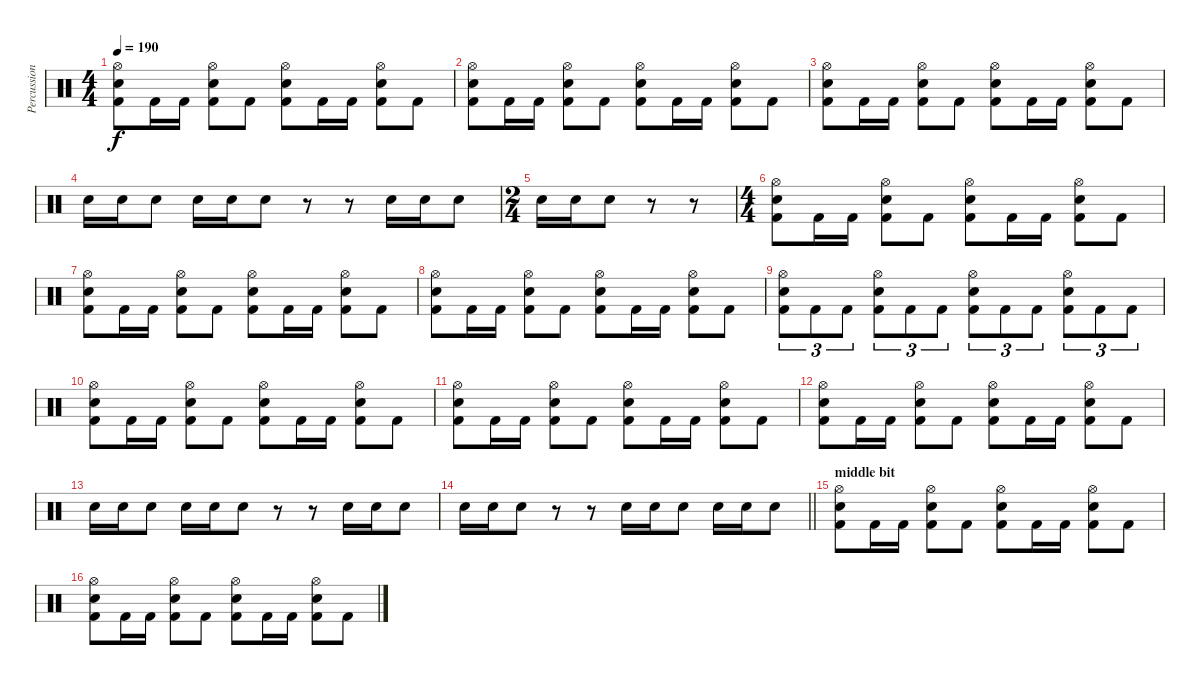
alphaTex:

\track ("Percussion" "Percussion") {instrument percussion}
\staff {score}
\articulation defaults
\ts (4 4)
\tempo 190
\clef neutral
\ks c
("Hi-Hat (open)" "Electric Snare (hit)" "Kick (hit) 2").8{dy f} "Kick (hit) 2".16 "Kick (hit) 2".16 ("Hi-Hat (open)" "Electric Snare (hit)" "Kick (hit) 2").8 "Kick (hit) 2".8 ("Hi-Hat (open)" "Electric Snare (hit)" "Kick (hit) 2").8 "Kick (hit) 2".16 "Kick (hit) 2".16 ("Hi-Hat (open)" "Electric Snare (hit)" "Kick (hit) 2").8 "Kick (hit) 2".8 |
("Hi-Hat (open)" "Electric Snare (hit)" "Kick (hit) 2").8 "Kick (hit) 2".16 "Kick (hit) 2".16 ("Hi-Hat (open)" "Electric Snare (hit)" "Kick (hit) 2").8 "Kick (hit) 2".8 ("Hi-Hat (open)" "Electric Snare (hit)" "Kick (hit) 2").8 "Kick (hit) 2".16 "Kick (hit) 2".16 ("Hi-Hat (open)" "Electric Snare (hit)" "Kick (hit) 2").8 "Kick (hit) 2".8 |
("Hi-Hat (open)" "Electric Snare (hit)" "Kick (hit) 2").8 "Kick (hit) 2".16 "Kick (hit) 2".16 ("Hi-Hat (open)" "Electric Snare (hit)" "Kick (hit) 2").8 "Kick (hit) 2".8 ("Hi-Hat (open)" "Electric Snare (hit)" "Kick (hit) 2").8 "Kick (hit) 2".16 "Kick (hit) 2".16 ("Hi-Hat (open)" "Electric Snare (hit)" "Kick (hit) 2").8 "Kick (hit) 2".8 |
"Electric Snare (hit)".16 "Electric Snare (hit)".16 "Electric Snare (hit)".8 "Electric Snare (hit)".16 "Electric Snare (hit)".16 "Electric Snare (hit)".8 r.8 r.8 "Electric Snare (hit)".16 "Electric Snare (hit)".16 "Electric Snare (hit)".8 |
\ts (2 4)
"Electric Snare (hit)".16 "Electric Snare (hit)".16 "Electric Snare (hit)".8 r.8 r.8 |
\ts (4 4)
("Hi-Hat (open)" "Electric Snare (hit)" "Kick (hit) 2").8 "Kick (hit) 2".16 "Kick (hit) 2".16 ("Hi-Hat (open)" "Electric Snare (hit)" "Kick (hit) 2").8 "Kick (hit) 2".8 ("Hi-Hat (open)" "Electric Snare (hit)" "Kick (hit) 2").8 "Kick (hit) 2".16 "Kick (hit) 2".16 ("Hi-Hat (open)" "Electric Snare (hit)" "Kick (hit) 2").8 "Kick (hit) 2".8 |
("Hi-Hat (open)" "Electric Snare (hit)" "Kick (hit) 2").8 "Kick (hit) 2".16 "Kick (hit) 2".16 ("Hi-Hat (open)" "Electric Snare (hit)" "Kick (hit) 2").8 "Kick (hit) 2".8 ("Hi-Hat (open)" "Electric Snare (hit)" "Kick (hit) 2").8 "Kick (hit) 2".16 "Kick (hit) 2".16 ("Hi-Hat (open)" "Electric Snare (hit)" "Kick (hit) 2").8 "Kick (hit) 2".8 |
("Hi-Hat (open)" "Electric Snare (hit)" "Kick (hit) 2").8 "Kick (hit) 2".16 "Kick (hit) 2".16 ("Hi-Hat (open)" "Electric Snare (hit)" "Kick (hit) 2").8 "Kick (hit) 2".8 ("Hi-Hat (open)" "Electric Snare (hit)" "Kick (hit) 2").8 "Kick (hit) 2".16 "Kick (hit) 2".16 ("Hi-Hat (open)" "Electric Snare (hit)" "Kick (hit) 2").8 "Kick (hit) 2".8 |
("Hi-Hat (open)" "Electric Snare (hit)" "Kick (hit) 2").8{tu (3 2)} "Kick (hit) 2".8{tu (3 2)} "Kick (hit) 2".8{tu (3 2)} ("Hi-Hat (open)" "Electric Snare (hit)" "Kick (hit) 2").8{tu (3 2)} "Kick (hit) 2".8{tu (3 2)} "Kick (hit) 2".8{tu (3 2)} ("Hi-Hat (open)" "Electric Snare (hit)" "Kick (hit) 2").8{tu (3 2)} "Kick (hit) 2".8{tu (3 2)} "Kick (hit) 2".8{tu (3 2)} ("Hi-Hat (open)" "Electric Snare (hit)" "Kick (hit) 2").8{tu (3 2)} "Kick (hit) 2".8{tu (3 2)} "Kick (hit) 2".8{tu (3 2)} |
("Hi-Hat (open)" "Electric Snare (hit)" "Kick (hit) 2").8 "Kick (hit) 2".16 "Kick (hit) 2".16 ("Hi-Hat (open)" "Electric Snare (hit)" "Kick (hit) 2").8 "Kick (hit) 2".8 ("Hi-Hat (open)" "Electric Snare (hit)" "Kick (hit) 2").8 "Kick (hit) 2".16 "Kick (hit) 2".16 ("Hi-Hat (open)" "Electric Snare (hit)" "Kick (hit) 2").8 "Kick (hit) 2".8 |
("Hi-Hat (open)" "Electric Snare (hit)" "Kick (hit) 2").8 "Kick (hit) 2".16 "Kick (hit) 2".16 ("Hi-Hat (open)" "Electric Snare (hit)" "Kick (hit) 2").8 "Kick (hit) 2".8 ("Hi-Hat (open)" "Electric Snare (hit)" "Kick (hit) 2").8 "Kick (hit) 2".16 "Kick (hit) 2".16 ("Hi-Hat (open)" "Electric Snare (hit)" "Kick (hit) 2").8 "Kick (hit) 2".8 |
("Hi-Hat (open)" "Electric Snare (hit)" "Kick (hit) 2").8 "Kick (hit) 2".16 "Kick (hit) 2".16 ("Hi-Hat (open)" "Electric Snare (hit)" "Kick (hit) 2").8 "Kick (hit) 2".8 ("Hi-Hat (open)" "Electric Snare (hit)" "Kick (hit) 2").8 "Kick (hit) 2".16 "Kick (hit) 2".16 ("Hi-Hat (open)" "Electric Snare (hit)" "Kick (hit) 2").8 "Kick (hit) 2".8 |
"Electric Snare (hit)".16 "Electric Snare (hit)".16 "Electric Snare (hit)".8 "Electric Snare (hit)".16 "Electric Snare (hit)".16 "Electric Snare (hit)".8 r.8 r.8 "Electric Snare (hit)".16 "Electric Snare (hit)".16 "Electric Snare (hit)".8 |
\barLineRight lightlight "Electric Snare (hit)".16 "Electric Snare (hit)".16 "Electric Snare (hit)".8
r.8 r.8 "Electric Snare (hit)".16 "Electric Snare (hit)".16 "Electric Snare (hit)".8 "Electric Snare (hit)".16 "Electric Snare (hit)".16 "Electric Snare (hit)".8 |
\section ("" "middle bit")
("Hi-Hat (open)" "Electric Snare (hit)" "Kick (hit) 2").8 "Kick (hit) 2".16 "Kick (hit) 2".16 ("Hi-Hat (open)" "Electric Snare (hit)" "Kick (hit) 2").8 "Kick (hit) 2".8 ("Hi-Hat (open)" "Electric Snare (hit)" "Kick (hit) 2").8 "Kick (hit) 2".16 "Kick (hit) 2".16 ("Hi-Hat (open)" "Electric Snare (hit)" "Kick (hit) 2").8 "Kick (hit) 2".8 |
("Hi-Hat (open)" "Electric Snare (hit)" "Kick (hit) 2").8 "Kick (hit) 2".16 "Kick (hit) 2".16 ("Hi-Hat (open)" "Electric Snare (hit)" "Kick (hit) 2").8 "Kick (hit) 2".8 ("Hi-Hat (open)" "Electric Snare (hit)" "Kick (hit) 2").8 "Kick (hit) 2".16 "Kick (hit) 2".16 ("Hi-Hat (open)" "Electric Snare (hit)" "Kick (hit) 2").8 "Kick (hit) 2".8
